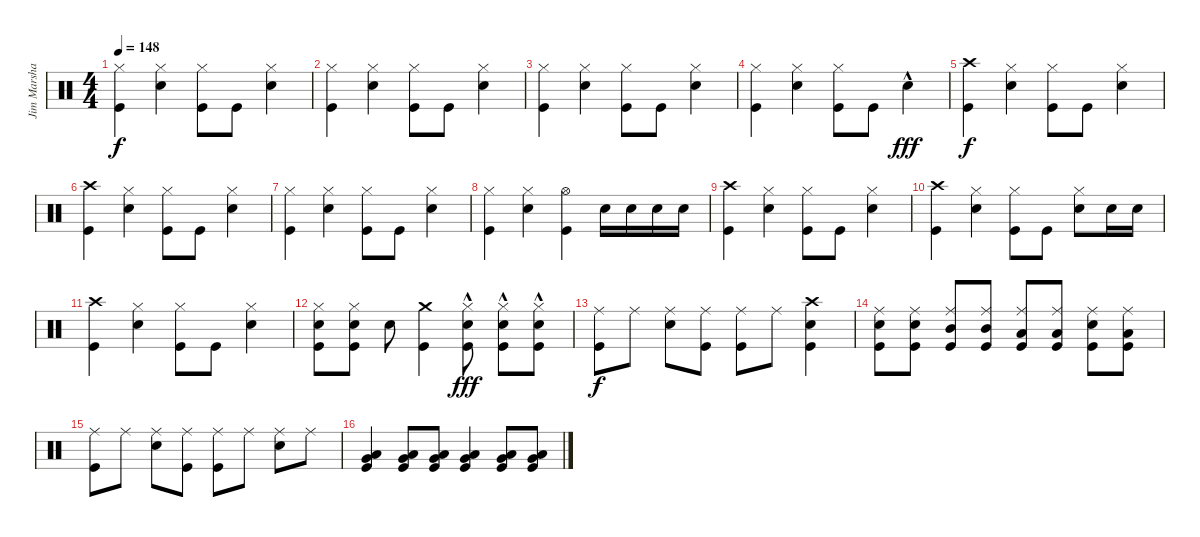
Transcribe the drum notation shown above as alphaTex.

\track ("Jim Marshall Drums" "Jim Marsha") {instrument percussion}
\staff {score}
\articulation defaults
\ts (4 4)
\tempo 148
\clef neutral
\ks c
("Hi-Hat (closed)" "Kick (hit)").4{dy f} ("Hi-Hat (closed)" "Snare (hit) 2").4 ("Hi-Hat (closed)" "Kick (hit)").8 "Kick (hit)".8 ("Hi-Hat (closed)" "Snare (hit) 2").4 |
("Hi-Hat (closed)" "Kick (hit)").4 ("Hi-Hat (closed)" "Snare (hit) 2").4 ("Hi-Hat (closed)" "Kick (hit)").8 "Kick (hit)".8 ("Hi-Hat (closed)" "Snare (hit) 2").4 |
("Hi-Hat (closed)" "Kick (hit)").4 ("Hi-Hat (closed)" "Snare (hit) 2").4 ("Hi-Hat (closed)" "Kick (hit)").8 "Kick (hit)".8 ("Hi-Hat (closed)" "Snare (hit) 2").4 |
("Hi-Hat (closed)" "Kick (hit)").4 ("Hi-Hat (closed)" "Snare (hit) 2").4 ("Hi-Hat (closed)" "Kick (hit)").8 "Kick (hit)".8 "Snare (hit) 2"{hac}.4{dy fff} |
("Crash high (hit)" "Kick (hit)").4{dy f} ("Hi-Hat (closed)" "Snare (hit) 2").4 ("Hi-Hat (closed)" "Kick (hit)").8 "Kick (hit)".8 ("Hi-Hat (closed)" "Snare (hit) 2").4 |
("Crash high (hit)" "Kick (hit)").4 ("Hi-Hat (closed)" "Snare (hit) 2").4 ("Hi-Hat (closed)" "Kick (hit)").8 "Kick (hit)".8 ("Hi-Hat (closed)" "Snare (hit) 2").4 |
("Hi-Hat (closed)" "Kick (hit)").4 ("Hi-Hat (closed)" "Snare (hit) 2").4 ("Hi-Hat (closed)" "Kick (hit)").8 "Kick (hit)".8 ("Hi-Hat (closed)" "Snare (hit) 2").4 |
("Hi-Hat (closed)" "Kick (hit)").4 ("Hi-Hat (closed)" "Snare (hit) 2").4 ("Hi-Hat (open)" "Kick (hit)").4 "Snare (hit) 2".16 "Snare (hit) 2".16 "Snare (hit) 2".16 "Snare (hit) 2".16 |
("Crash high (hit)" "Kick (hit)").4 ("Hi-Hat (closed)" "Snare (hit) 2").4 ("Hi-Hat (closed)" "Kick (hit)").8 "Kick (hit)".8 ("Hi-Hat (closed)" "Snare (hit) 2").4 |
("Crash high (hit)" "Kick (hit)").4 ("Hi-Hat (closed)" "Snare (hit) 2").4 ("Hi-Hat (closed)" "Kick (hit)").8 "Kick (hit)".8 ("Hi-Hat (closed)" "Snare (hit) 2").8 "Snare (hit) 2".16 "Snare (hit) 2".16 |
("Crash high (hit)" "Kick (hit)").4 ("Hi-Hat (closed)" "Snare (hit) 2").4 ("Hi-Hat (closed)" "Kick (hit)").8 "Kick (hit)".8 ("Hi-Hat (closed)" "Snare (hit) 2").4 |
("Hi-Hat (closed)" "Snare (hit) 2" "Kick (hit)").8 ("Hi-Hat (closed)" "Snare (hit) 2" "Kick (hit)").8 "Snare (hit) 2".8 ("Crash medium (hit)" "Kick (hit)").4 ("Hi-Hat (closed)"{hac} "Snare (hit) 2" "Kick (hit)").8{dy fff} ("Hi-Hat (closed)"{hac} "Snare (hit) 2" "Kick (hit)").8 ("Hi-Hat (closed)"{hac} "Snare (hit) 2" "Kick (hit)").8 |
("Ride (middle)" "Kick (hit)").8{dy f} "Ride (middle)".8 ("Ride (middle)" "Snare (hit) 2").8 ("Ride (middle)" "Kick (hit)").8 ("Ride (middle)" "Kick (hit)").8 "Ride (middle)".8 ("Crash high (hit)" "Snare (hit) 2" "Kick (hit)").4 |
("Ride (middle)" "Snare (hit) 2" "Kick (hit)").8 ("Ride (middle)" "Snare (hit) 2" "Kick (hit)").8 ("Ride (middle)" "Mid Tom (hit)" "Kick (hit)").8 ("Ride (middle)" "Mid Tom (hit)" "Kick (hit)").8 ("Ride (middle)" "Low Tom (hit)" "Kick (hit)").8 ("Ride (middle)" "Low Tom (hit)" "Kick (hit)").8 ("Ride (middle)" "Snare (hit) 2" "Kick (hit)").8 ("Ride (middle)" "Low Tom (hit)" "Kick (hit)").8 |
("Ride (middle)" "Kick (hit)").8 "Ride (middle)".8 ("Ride (middle)" "Snare (hit) 2").8 ("Ride (middle)" "Kick (hit)").8 ("Ride (middle)" "Kick (hit)").8 "Ride (middle)".8 ("Ride (middle)" "Snare (hit) 2").8 "Ride (middle)".8 |
("Very Low Tom (hit)" "Low Floor Tom (hit)" "Kick (hit)").4 ("Very Low Tom (hit)" "Low Floor Tom (hit)" "Kick (hit)").8 ("Very Low Tom (hit)" "Low Floor Tom (hit)" "Kick (hit)").8 ("Very Low Tom (hit)" "Low Floor Tom (hit)" "Kick (hit)").4 ("Very Low Tom (hit)" "Low Floor Tom (hit)" "Kick (hit)").8 ("Very Low Tom (hit)" "Low Floor Tom (hit)" "Kick (hit)").8
